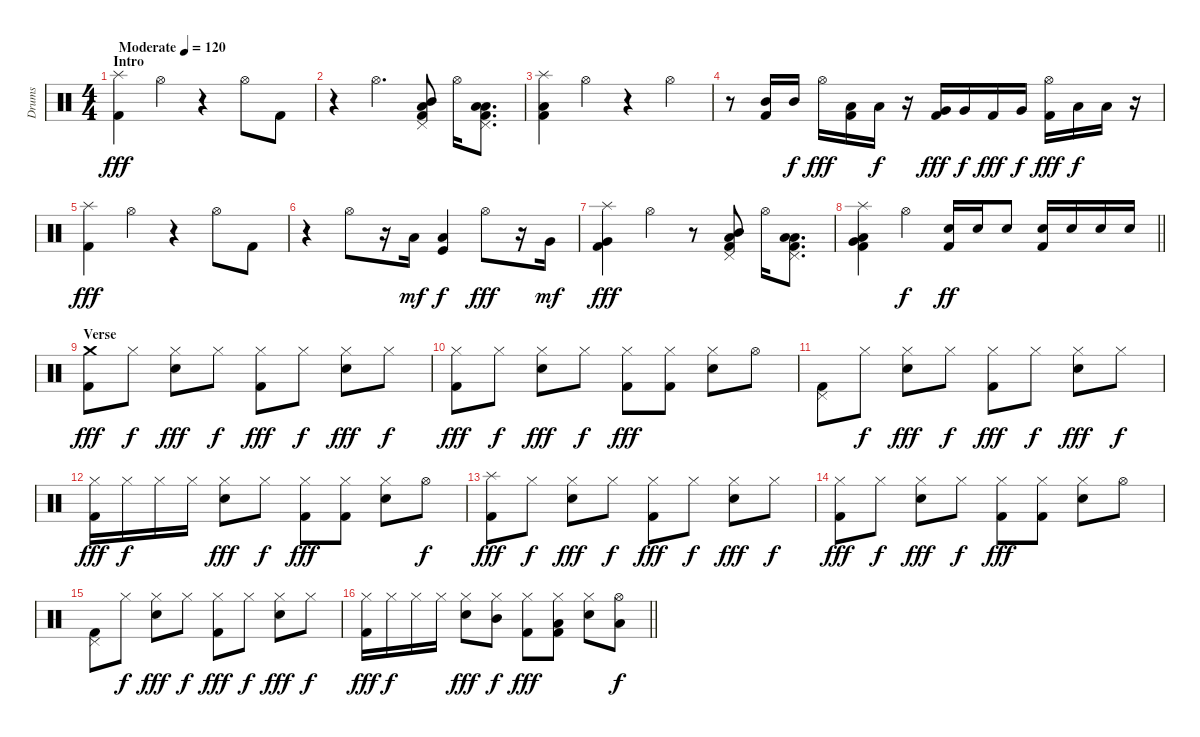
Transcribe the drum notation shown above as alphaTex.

\track ("Drums" "Drums") {instrument percussion}
\staff {score}
\articulation defaults
\ts (4 4)
\section ("" "Intro")
\tempo (120 "Moderate")
\clef neutral
\ks c
("Splash (hit)" "Kick (hit) 2").4{dy fff} "Hi-Hat (open)".4 r.4 "Hi-Hat (open)".8 "Kick (hit) 2".8 |
r.4 "Hi-Hat (open)".4{d} ("Pedal Hi-Hat (hit)" "Mid Tom (hit)" "Low Floor Tom (hit)" "Kick (hit) 2").8 "Hi-Hat (open)".16 ("Pedal Hi-Hat (hit)" "Low Tom (hit)" "Low Floor Tom (hit)" "Kick (hit) 2").8{d} |
("Splash (hit)" "Low Floor Tom (hit)" "Kick (hit) 2").4 "Hi-Hat (open)".4 r.4 "Hi-Hat (open)".4 |
r.8 ("Mid Tom (hit)" "Kick (hit) 2").16 "Mid Tom (hit)".16{dy f} "Hi-Hat (open)".16{dy fff} ("Low Tom (hit)" "Kick (hit) 2").16 "Low Tom (hit)".16{dy f} r.16 ("Very Low Tom (hit)" "Kick (hit) 2").16{dy fff} "Very Low Tom (hit)".16{dy f} "Kick (hit) 2".16{dy fff} "Very Low Tom (hit)".16{dy f} ("Hi-Hat (open)" "Kick (hit) 2").16{dy fff} "Low Floor Tom (hit)".16{dy f} "Low Floor Tom (hit)".16 r.16 |
("Splash (hit)" "Kick (hit) 2").4{dy fff} "Hi-Hat (open)".4 r.4 "Hi-Hat (open)".8 "Kick (hit) 2".8 |
r.4 "Hi-Hat (open)".8 r.16 "Low Tom (hit)".16{dy mf} ("Kick (hit)" "Low Tom (hit)").4{dy f} "Hi-Hat (open)".8{dy fff} r.16 "Very Low Tom (hit)".16{dy mf} |
("Splash (hit)" "Very Low Tom (hit)" "Kick (hit) 2").4{dy fff} "Hi-Hat (open)".4 r.8 ("Pedal Hi-Hat (hit)" "Mid Tom (hit)" "Low Floor Tom (hit)" "Kick (hit) 2").8 "Hi-Hat (open)".16 ("Pedal Hi-Hat (hit)" "Low Tom (hit)" "Low Floor Tom (hit)" "Kick (hit) 2").8{d} |
\barLineRight lightlight
("Splash (hit)" "Very Low Tom (hit)" "Low Floor Tom (hit)" "Kick (hit) 2").4 "Hi-Hat (open)".4{dy f} ("Snare (hit) 2" "Kick (hit) 2").16{dy ff} "Snare (hit) 2".16 "Snare (hit) 2".8 ("Snare (hit) 2" "Kick (hit) 2").16 "Snare (hit) 2".16 "Snare (hit) 2".16 "Snare (hit) 2".16 |
\section ("" "Verse")
("Crash medium (hit)" "Kick (hit) 2").8{dy fff} "Hi-Hat (closed)".8{dy f} ("Hi-Hat (closed)" "Snare (hit) 2").8{dy fff} "Hi-Hat (closed)".8{dy f} ("Hi-Hat (closed)" "Kick (hit) 2").8{dy fff} "Hi-Hat (closed)".8{dy f} ("Hi-Hat (closed)" "Snare (hit) 2").8{dy fff} "Hi-Hat (closed)".8{dy f} |
("Hi-Hat (closed)" "Kick (hit) 2").8{dy fff} "Hi-Hat (closed)".8{dy f} ("Hi-Hat (closed)" "Snare (hit) 2").8{dy fff} "Hi-Hat (closed)".8{dy f} ("Hi-Hat (closed)" "Kick (hit) 2").8{dy fff} ("Hi-Hat (closed)" "Kick (hit) 2").8 ("Hi-Hat (closed)" "Snare (hit) 2").8 "Hi-Hat (open)".8 |
("Pedal Hi-Hat (hit)" "Kick (hit) 2").8 "Hi-Hat (closed)".8{dy f} ("Hi-Hat (closed)" "Snare (hit) 2").8{dy fff} "Hi-Hat (closed)".8{dy f} ("Hi-Hat (closed)" "Kick (hit) 2").8{dy fff} "Hi-Hat (closed)".8{dy f} ("Hi-Hat (closed)" "Snare (hit) 2").8{dy fff} "Hi-Hat (closed)".8{dy f} |
("Hi-Hat (closed)" "Kick (hit) 2").16{dy fff} "Hi-Hat (closed)".16{dy f} "Hi-Hat (closed)".16 "Hi-Hat (closed)".16 ("Hi-Hat (closed)" "Snare (hit) 2").8{dy fff} "Hi-Hat (closed)".8{dy f} ("Hi-Hat (closed)" "Kick (hit) 2").8{dy fff} ("Hi-Hat (closed)" "Kick (hit) 2").8 ("Hi-Hat (closed)" "Snare (hit) 2").8 "Hi-Hat (open)".8{dy f} |
("Splash (hit)" "Kick (hit) 2").8{dy fff} "Hi-Hat (closed)".8{dy f} ("Hi-Hat (closed)" "Snare (hit) 2").8{dy fff} "Hi-Hat (closed)".8{dy f} ("Hi-Hat (closed)" "Kick (hit) 2").8{dy fff} "Hi-Hat (closed)".8{dy f} ("Hi-Hat (closed)" "Snare (hit) 2").8{dy fff} "Hi-Hat (closed)".8{dy f} |
("Hi-Hat (closed)" "Kick (hit) 2").8{dy fff} "Hi-Hat (closed)".8{dy f} ("Hi-Hat (closed)" "Snare (hit) 2").8{dy fff} "Hi-Hat (closed)".8{dy f} ("Hi-Hat (closed)" "Kick (hit) 2").8{dy fff} ("Hi-Hat (closed)" "Kick (hit) 2").8 ("Hi-Hat (closed)" "Snare (hit) 2").8 "Hi-Hat (open)".8 |
("Pedal Hi-Hat (hit)" "Kick (hit) 2").8 "Hi-Hat (closed)".8{dy f} ("Hi-Hat (closed)" "Snare (hit) 2").8{dy fff} "Hi-Hat (closed)".8{dy f} ("Hi-Hat (closed)" "Kick (hit) 2").8{dy fff} "Hi-Hat (closed)".8{dy f} ("Hi-Hat (closed)" "Snare (hit) 2").8{dy fff} "Hi-Hat (closed)".8{dy f} |
\barLineRight lightlight
("Hi-Hat (closed)" "Kick (hit) 2").16{dy fff} "Hi-Hat (closed)".16{dy f} "Hi-Hat (closed)".16 "Hi-Hat (closed)".16 ("Hi-Hat (closed)" "Snare (hit) 2").8{dy fff} ("Hi-Hat (closed)" "Mid Tom (hit)").8{dy f} ("Hi-Hat (closed)" "Kick (hit) 2").8{dy fff} ("Hi-Hat (closed)" "Low Tom (hit)" "Kick (hit) 2").8 ("Hi-Hat (closed)" "Snare (hit) 2").8 ("Hi-Hat (open)" "Low Tom (hit)").8{dy f}
